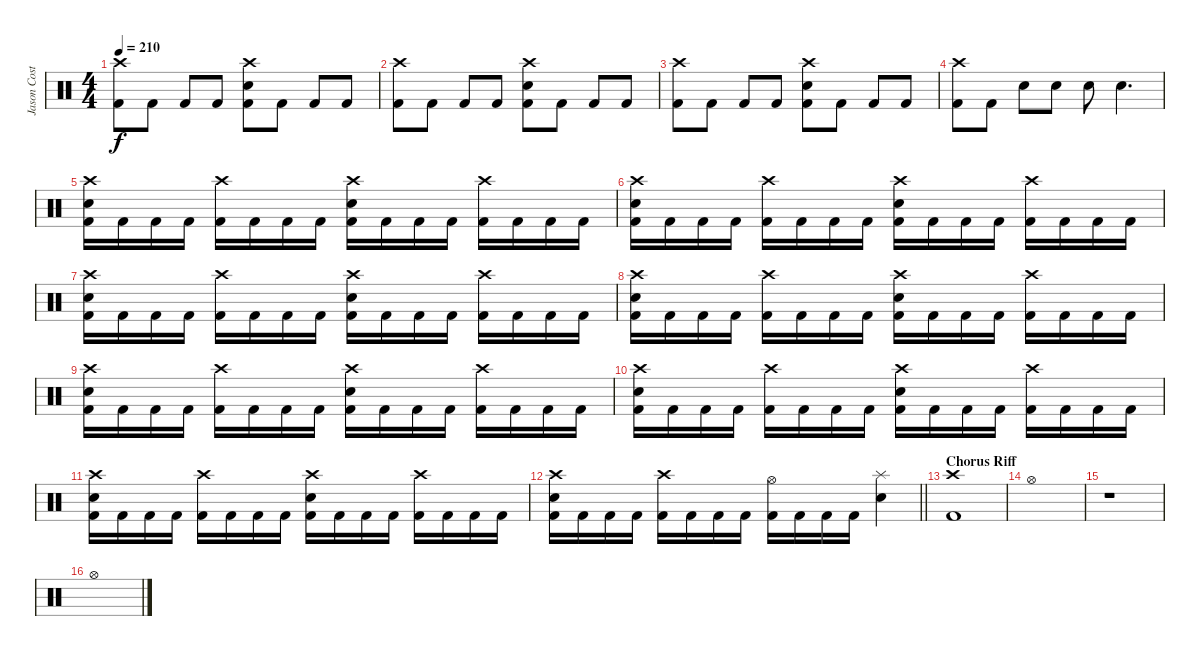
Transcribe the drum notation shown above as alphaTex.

\track ("Jason Costa" "Jason Cost") {instrument percussion}
\staff {score}
\articulation defaults
\ts (4 4)
\tempo 210
\clef neutral
\ks c
("Crash high (hit)" "Kick (hit) 2").8{dy f} "Kick (hit) 2".8 "Kick (hit) 2".8 "Kick (hit) 2".8 ("Crash high (hit)" "Electric Snare (hit)" "Kick (hit) 2").8 "Kick (hit) 2".8 "Kick (hit) 2".8 "Kick (hit) 2".8 |
("Crash high (hit)" "Kick (hit) 2").8 "Kick (hit) 2".8 "Kick (hit) 2".8 "Kick (hit) 2".8 ("Crash high (hit)" "Electric Snare (hit)" "Kick (hit) 2").8 "Kick (hit) 2".8 "Kick (hit) 2".8 "Kick (hit) 2".8 |
("Crash high (hit)" "Kick (hit) 2").8 "Kick (hit) 2".8 "Kick (hit) 2".8 "Kick (hit) 2".8 ("Crash high (hit)" "Electric Snare (hit)" "Kick (hit) 2").8 "Kick (hit) 2".8 "Kick (hit) 2".8 "Kick (hit) 2".8 |
("Crash high (hit)" "Kick (hit) 2").8 "Kick (hit) 2".8 "Electric Snare (hit)".8 "Electric Snare (hit)".8 "Electric Snare (hit)".8 "Electric Snare (hit)".4{d} |
("Crash high (hit)" "Electric Snare (hit)" "Kick (hit) 2").16 "Kick (hit) 2".16 "Kick (hit) 2".16 "Kick (hit) 2".16 ("Crash high (hit)" "Kick (hit) 2").16 "Kick (hit) 2".16 "Kick (hit) 2".16 "Kick (hit) 2".16 ("Crash high (hit)" "Electric Snare (hit)" "Kick (hit) 2").16 "Kick (hit) 2".16 "Kick (hit) 2".16 "Kick (hit) 2".16 ("Crash high (hit)" "Kick (hit) 2").16 "Kick (hit) 2".16 "Kick (hit) 2".16 "Kick (hit) 2".16 |
("Crash high (hit)" "Electric Snare (hit)" "Kick (hit) 2").16 "Kick (hit) 2".16 "Kick (hit) 2".16 "Kick (hit) 2".16 ("Crash high (hit)" "Kick (hit) 2").16 "Kick (hit) 2".16 "Kick (hit) 2".16 "Kick (hit) 2".16 ("Crash high (hit)" "Electric Snare (hit)" "Kick (hit) 2").16 "Kick (hit) 2".16 "Kick (hit) 2".16 "Kick (hit) 2".16 ("Crash high (hit)" "Kick (hit) 2").16 "Kick (hit) 2".16 "Kick (hit) 2".16 "Kick (hit) 2".16 |
("Crash high (hit)" "Electric Snare (hit)" "Kick (hit) 2").16 "Kick (hit) 2".16 "Kick (hit) 2".16 "Kick (hit) 2".16 ("Crash high (hit)" "Kick (hit) 2").16 "Kick (hit) 2".16 "Kick (hit) 2".16 "Kick (hit) 2".16 ("Crash high (hit)" "Electric Snare (hit)" "Kick (hit) 2").16 "Kick (hit) 2".16 "Kick (hit) 2".16 "Kick (hit) 2".16 ("Crash high (hit)" "Kick (hit) 2").16 "Kick (hit) 2".16 "Kick (hit) 2".16 "Kick (hit) 2".16 |
("Crash high (hit)" "Electric Snare (hit)" "Kick (hit) 2").16 "Kick (hit) 2".16 "Kick (hit) 2".16 "Kick (hit) 2".16 ("Crash high (hit)" "Kick (hit) 2").16 "Kick (hit) 2".16 "Kick (hit) 2".16 "Kick (hit) 2".16 ("Crash high (hit)" "Electric Snare (hit)" "Kick (hit) 2").16 "Kick (hit) 2".16 "Kick (hit) 2".16 "Kick (hit) 2".16 ("Crash high (hit)" "Kick (hit) 2").16 "Kick (hit) 2".16 "Kick (hit) 2".16 "Kick (hit) 2".16 |
("Crash high (hit)" "Electric Snare (hit)" "Kick (hit) 2").16 "Kick (hit) 2".16 "Kick (hit) 2".16 "Kick (hit) 2".16 ("Crash high (hit)" "Kick (hit) 2").16 "Kick (hit) 2".16 "Kick (hit) 2".16 "Kick (hit) 2".16 ("Crash high (hit)" "Electric Snare (hit)" "Kick (hit) 2").16 "Kick (hit) 2".16 "Kick (hit) 2".16 "Kick (hit) 2".16 ("Crash high (hit)" "Kick (hit) 2").16 "Kick (hit) 2".16 "Kick (hit) 2".16 "Kick (hit) 2".16 |
("Crash high (hit)" "Electric Snare (hit)" "Kick (hit) 2").16 "Kick (hit) 2".16 "Kick (hit) 2".16 "Kick (hit) 2".16 ("Crash high (hit)" "Kick (hit) 2").16 "Kick (hit) 2".16 "Kick (hit) 2".16 "Kick (hit) 2".16 ("Crash high (hit)" "Electric Snare (hit)" "Kick (hit) 2").16 "Kick (hit) 2".16 "Kick (hit) 2".16 "Kick (hit) 2".16 ("Crash high (hit)" "Kick (hit) 2").16 "Kick (hit) 2".16 "Kick (hit) 2".16 "Kick (hit) 2".16 |
("Crash high (hit)" "Electric Snare (hit)" "Kick (hit) 2").16 "Kick (hit) 2".16 "Kick (hit) 2".16 "Kick (hit) 2".16 ("Crash high (hit)" "Kick (hit) 2").16 "Kick (hit) 2".16 "Kick (hit) 2".16 "Kick (hit) 2".16 ("Crash high (hit)" "Electric Snare (hit)" "Kick (hit) 2").16 "Kick (hit) 2".16 "Kick (hit) 2".16 "Kick (hit) 2".16 ("Crash high (hit)" "Kick (hit) 2").16 "Kick (hit) 2".16 "Kick (hit) 2".16 "Kick (hit) 2".16 |
\barLineRight lightlight
("Crash high (hit)" "Electric Snare (hit)" "Kick (hit) 2").16 "Kick (hit) 2".16 "Kick (hit) 2".16 "Kick (hit) 2".16 ("Crash high (hit)" "Kick (hit) 2").16 "Kick (hit) 2".16 "Kick (hit) 2".16 "Kick (hit) 2".16 ("Hi-Hat (open)" "Kick (hit) 2").16 "Kick (hit) 2".16 "Kick (hit) 2".16 "Kick (hit) 2".16 ("Splash (hit)" "Electric Snare (hit)").4 |
\section ("" "Chorus Riff")
("Crash high (hit)" "Kick (hit) 2").1 |
"Hi-Hat (open)".1 |
r.1 |
"Hi-Hat (open)".1
